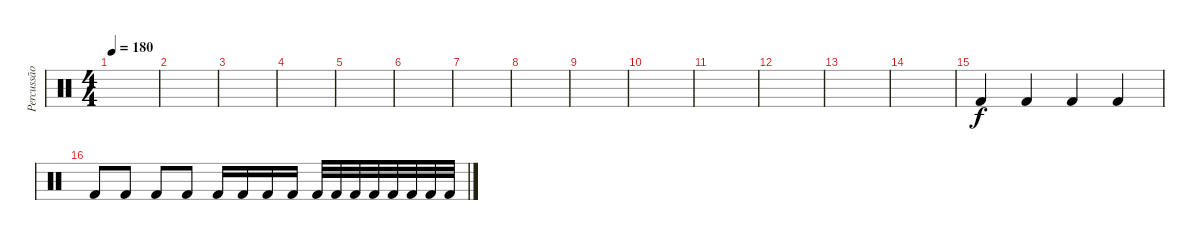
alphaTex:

\track ("Percussão" "Percussão") {instrument percussion}
\staff {score}
\articulation defaults
\ts (4 4)
\tempo 180
\clef neutral
\ks c
|
|
|
|
|
|
|
|
|
|
|
|
|
|
"Kick (hit) 2".4 "Kick (hit) 2".4 "Kick (hit) 2".4 "Kick (hit) 2".4 |
"Kick (hit) 2".8 "Kick (hit) 2".8 "Kick (hit) 2".8 "Kick (hit) 2".8 "Kick (hit) 2".16 "Kick (hit) 2".16 "Kick (hit) 2".16 "Kick (hit) 2".16 "Kick (hit) 2".32 "Kick (hit) 2".32 "Kick (hit) 2".32 "Kick (hit) 2".32 "Kick (hit) 2".32 "Kick (hit) 2".32 "Kick (hit) 2".32 "Kick (hit) 2".32
